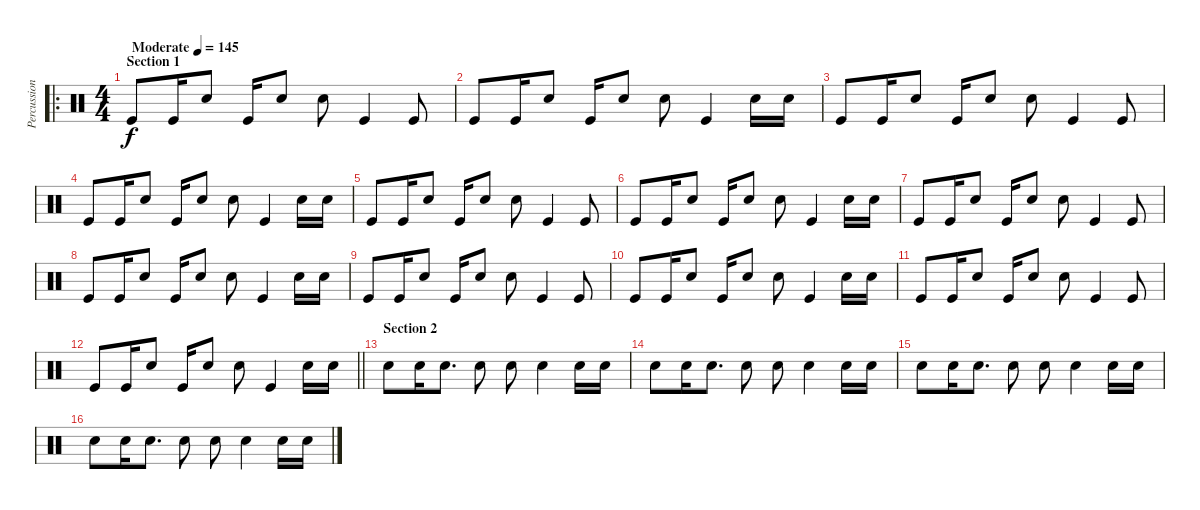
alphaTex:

\track ("Percussion" "Percussion") {instrument percussion}
\staff {score}
\articulation defaults
\ro
\ts (4 4)
\section ("" "Section 1")
\tempo (145 "Moderate")
\clef neutral
\ks c "Kick (hit)".8{dy f} "Kick (hit)".16 "Snare (hit) 2".8 "Kick (hit)".16 "Electric Snare (hit)".8 "Electric Snare (hit)".8 "Kick (hit)".4 "Kick (hit)".8
|
"Kick (hit)".8 "Kick (hit)".16 "Snare (hit) 2".8 "Kick (hit)".16 "Electric Snare (hit)".8 "Electric Snare (hit)".8 "Kick (hit)".4 "Electric Snare (hit)".16 "Electric Snare (hit)".16 |
"Kick (hit)".8 "Kick (hit)".16 "Snare (hit) 2".8 "Kick (hit)".16 "Electric Snare (hit)".8 "Electric Snare (hit)".8 "Kick (hit)".4 "Kick (hit)".8 |
"Kick (hit)".8 "Kick (hit)".16 "Snare (hit) 2".8 "Kick (hit)".16 "Electric Snare (hit)".8 "Electric Snare (hit)".8 "Kick (hit)".4 "Electric Snare (hit)".16 "Electric Snare (hit)".16 |
"Kick (hit)".8 "Kick (hit)".16 "Snare (hit) 2".8 "Kick (hit)".16 "Electric Snare (hit)".8 "Electric Snare (hit)".8 "Kick (hit)".4 "Kick (hit)".8 |
"Kick (hit)".8 "Kick (hit)".16 "Snare (hit) 2".8 "Kick (hit)".16 "Electric Snare (hit)".8 "Electric Snare (hit)".8 "Kick (hit)".4 "Electric Snare (hit)".16 "Electric Snare (hit)".16 |
"Kick (hit)".8 "Kick (hit)".16 "Snare (hit) 2".8 "Kick (hit)".16 "Electric Snare (hit)".8 "Electric Snare (hit)".8 "Kick (hit)".4 "Kick (hit)".8 |
"Kick (hit)".8 "Kick (hit)".16 "Snare (hit) 2".8 "Kick (hit)".16 "Electric Snare (hit)".8 "Electric Snare (hit)".8 "Kick (hit)".4 "Electric Snare (hit)".16 "Electric Snare (hit)".16 |
"Kick (hit)".8 "Kick (hit)".16 "Snare (hit) 2".8 "Kick (hit)".16 "Electric Snare (hit)".8 "Electric Snare (hit)".8 "Kick (hit)".4 "Kick (hit)".8 |
"Kick (hit)".8 "Kick (hit)".16 "Snare (hit) 2".8 "Kick (hit)".16 "Electric Snare (hit)".8 "Electric Snare (hit)".8 "Kick (hit)".4 "Electric Snare (hit)".16 "Electric Snare (hit)".16 |
"Kick (hit)".8 "Kick (hit)".16 "Snare (hit) 2".8 "Kick (hit)".16 "Electric Snare (hit)".8 "Electric Snare (hit)".8 "Kick (hit)".4 "Kick (hit)".8 |
\barLineRight lightlight "Kick (hit)".8 "Kick (hit)".16 "Snare (hit) 2".8 "Kick (hit)".16 "Electric Snare (hit)".8 "Electric Snare (hit)".8 "Kick (hit)".4 "Electric Snare (hit)".16 "Electric Snare (hit)".16
|
\section ("" "Section 2")
"Snare (hit) 2".8 "Snare (hit) 2".16 "Snare (hit) 2".8{d} "Snare (hit) 2".8 "Snare (hit) 2".8 "Snare (hit) 2".4 "Electric Snare (hit)".16 "Electric Snare (hit)".16 |
"Snare (hit) 2".8 "Snare (hit) 2".16 "Snare (hit) 2".8{d} "Snare (hit) 2".8 "Snare (hit) 2".8 "Snare (hit) 2".4 "Electric Snare (hit)".16 "Electric Snare (hit)".16 |
"Snare (hit) 2".8 "Snare (hit) 2".16 "Snare (hit) 2".8{d} "Snare (hit) 2".8 "Snare (hit) 2".8 "Snare (hit) 2".4 "Electric Snare (hit)".16 "Electric Snare (hit)".16 |
"Snare (hit) 2".8 "Snare (hit) 2".16 "Snare (hit) 2".8{d} "Snare (hit) 2".8 "Snare (hit) 2".8 "Snare (hit) 2".4 "Electric Snare (hit)".16 "Electric Snare (hit)".16
